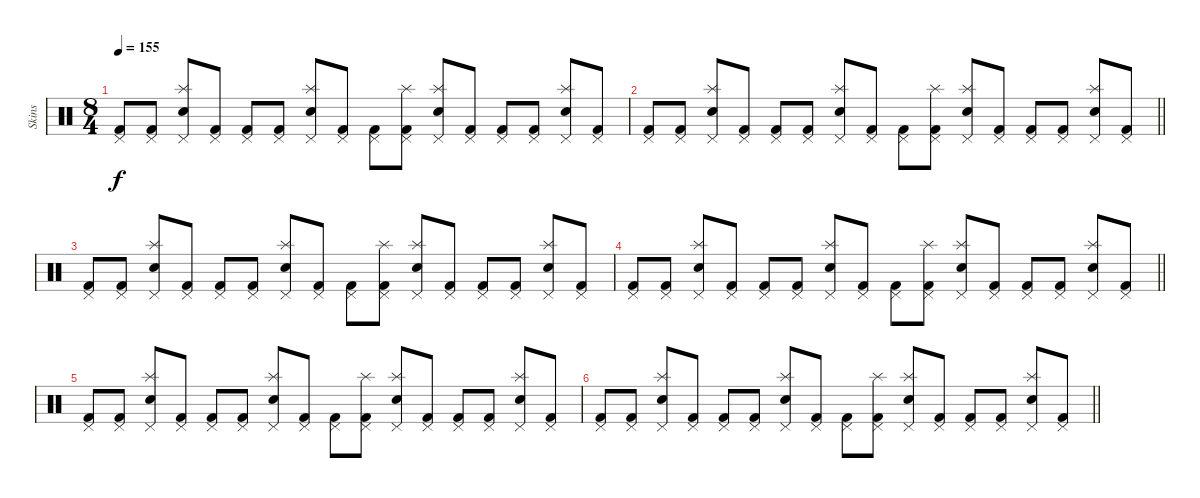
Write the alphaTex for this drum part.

\track ("Skins" "Skins") {instrument percussion}
\staff {score}
\articulation defaults
\ts (8 4)
\tempo 155
\clef neutral
\ks c
("Pedal Hi-Hat (hit)" "Kick (hit) 2").8{dy f} ("Pedal Hi-Hat (hit)" "Kick (hit) 2").8 ("Pedal Hi-Hat (hit)" "Splash (hit)" "Electric Snare (hit)").8 ("Pedal Hi-Hat (hit)" "Kick (hit) 2").8 ("Pedal Hi-Hat (hit)" "Kick (hit) 2").8 ("Pedal Hi-Hat (hit)" "Kick (hit) 2").8 ("Pedal Hi-Hat (hit)" "Splash (hit)" "Electric Snare (hit)").8 ("Pedal Hi-Hat (hit)" "Kick (hit) 2").8 ("Pedal Hi-Hat (hit)" "Kick (hit) 2").8 ("Pedal Hi-Hat (hit)" "Splash (hit)" "Kick (hit) 2").8 ("Pedal Hi-Hat (hit)" "Splash (hit)" "Electric Snare (hit)").8 ("Pedal Hi-Hat (hit)" "Kick (hit) 2").8 ("Pedal Hi-Hat (hit)" "Kick (hit) 2").8 ("Pedal Hi-Hat (hit)" "Kick (hit) 2").8 ("Pedal Hi-Hat (hit)" "Splash (hit)" "Electric Snare (hit)").8 ("Pedal Hi-Hat (hit)" "Kick (hit) 2").8 |
\barLineRight lightlight
("Pedal Hi-Hat (hit)" "Kick (hit) 2").8 ("Pedal Hi-Hat (hit)" "Kick (hit) 2").8 ("Pedal Hi-Hat (hit)" "Splash (hit)" "Electric Snare (hit)").8 ("Pedal Hi-Hat (hit)" "Kick (hit) 2").8 ("Pedal Hi-Hat (hit)" "Kick (hit) 2").8 ("Pedal Hi-Hat (hit)" "Kick (hit) 2").8 ("Pedal Hi-Hat (hit)" "Splash (hit)" "Electric Snare (hit)").8 ("Pedal Hi-Hat (hit)" "Kick (hit) 2").8 ("Pedal Hi-Hat (hit)" "Kick (hit) 2").8 ("Pedal Hi-Hat (hit)" "Splash (hit)" "Kick (hit) 2").8 ("Pedal Hi-Hat (hit)" "Splash (hit)" "Electric Snare (hit)").8 ("Pedal Hi-Hat (hit)" "Kick (hit) 2").8 ("Pedal Hi-Hat (hit)" "Kick (hit) 2").8 ("Pedal Hi-Hat (hit)" "Kick (hit) 2").8 ("Pedal Hi-Hat (hit)" "Splash (hit)" "Electric Snare (hit)").8 ("Pedal Hi-Hat (hit)" "Kick (hit) 2").8 |
("Pedal Hi-Hat (hit)" "Kick (hit) 2").8 ("Pedal Hi-Hat (hit)" "Kick (hit) 2").8 ("Pedal Hi-Hat (hit)" "Splash (hit)" "Electric Snare (hit)").8 ("Pedal Hi-Hat (hit)" "Kick (hit) 2").8 ("Pedal Hi-Hat (hit)" "Kick (hit) 2").8 ("Pedal Hi-Hat (hit)" "Kick (hit) 2").8 ("Pedal Hi-Hat (hit)" "Splash (hit)" "Electric Snare (hit)").8 ("Pedal Hi-Hat (hit)" "Kick (hit) 2").8 ("Pedal Hi-Hat (hit)" "Kick (hit) 2").8 ("Pedal Hi-Hat (hit)" "Splash (hit)" "Kick (hit) 2").8 ("Pedal Hi-Hat (hit)" "Splash (hit)" "Electric Snare (hit)").8 ("Pedal Hi-Hat (hit)" "Kick (hit) 2").8 ("Pedal Hi-Hat (hit)" "Kick (hit) 2").8 ("Pedal Hi-Hat (hit)" "Kick (hit) 2").8 ("Pedal Hi-Hat (hit)" "Splash (hit)" "Electric Snare (hit)").8 ("Pedal Hi-Hat (hit)" "Kick (hit) 2").8 |
\barLineRight lightlight
("Pedal Hi-Hat (hit)" "Kick (hit) 2").8 ("Pedal Hi-Hat (hit)" "Kick (hit) 2").8 ("Pedal Hi-Hat (hit)" "Splash (hit)" "Electric Snare (hit)").8 ("Pedal Hi-Hat (hit)" "Kick (hit) 2").8 ("Pedal Hi-Hat (hit)" "Kick (hit) 2").8 ("Pedal Hi-Hat (hit)" "Kick (hit) 2").8 ("Pedal Hi-Hat (hit)" "Splash (hit)" "Electric Snare (hit)").8 ("Pedal Hi-Hat (hit)" "Kick (hit) 2").8 ("Pedal Hi-Hat (hit)" "Kick (hit) 2").8 ("Pedal Hi-Hat (hit)" "Splash (hit)" "Kick (hit) 2").8 ("Pedal Hi-Hat (hit)" "Splash (hit)" "Electric Snare (hit)").8 ("Pedal Hi-Hat (hit)" "Kick (hit) 2").8 ("Pedal Hi-Hat (hit)" "Kick (hit) 2").8 ("Pedal Hi-Hat (hit)" "Kick (hit) 2").8 ("Pedal Hi-Hat (hit)" "Splash (hit)" "Electric Snare (hit)").8 ("Pedal Hi-Hat (hit)" "Kick (hit) 2").8 |
("Pedal Hi-Hat (hit)" "Kick (hit) 2").8 ("Pedal Hi-Hat (hit)" "Kick (hit) 2").8 ("Pedal Hi-Hat (hit)" "Splash (hit)" "Electric Snare (hit)").8 ("Pedal Hi-Hat (hit)" "Kick (hit) 2").8 ("Pedal Hi-Hat (hit)" "Kick (hit) 2").8 ("Pedal Hi-Hat (hit)" "Kick (hit) 2").8 ("Pedal Hi-Hat (hit)" "Splash (hit)" "Electric Snare (hit)").8 ("Pedal Hi-Hat (hit)" "Kick (hit) 2").8 ("Pedal Hi-Hat (hit)" "Kick (hit) 2").8 ("Pedal Hi-Hat (hit)" "Splash (hit)" "Kick (hit) 2").8 ("Pedal Hi-Hat (hit)" "Splash (hit)" "Electric Snare (hit)").8 ("Pedal Hi-Hat (hit)" "Kick (hit) 2").8 ("Pedal Hi-Hat (hit)" "Kick (hit) 2").8 ("Pedal Hi-Hat (hit)" "Kick (hit) 2").8 ("Pedal Hi-Hat (hit)" "Splash (hit)" "Electric Snare (hit)").8 ("Pedal Hi-Hat (hit)" "Kick (hit) 2").8 |
\barLineRight lightlight
("Pedal Hi-Hat (hit)" "Kick (hit) 2").8 ("Pedal Hi-Hat (hit)" "Kick (hit) 2").8 ("Pedal Hi-Hat (hit)" "Splash (hit)" "Electric Snare (hit)").8 ("Pedal Hi-Hat (hit)" "Kick (hit) 2").8 ("Pedal Hi-Hat (hit)" "Kick (hit) 2").8 ("Pedal Hi-Hat (hit)" "Kick (hit) 2").8 ("Pedal Hi-Hat (hit)" "Splash (hit)" "Electric Snare (hit)").8 ("Pedal Hi-Hat (hit)" "Kick (hit) 2").8 ("Pedal Hi-Hat (hit)" "Kick (hit) 2").8 ("Pedal Hi-Hat (hit)" "Splash (hit)" "Kick (hit) 2").8 ("Pedal Hi-Hat (hit)" "Splash (hit)" "Electric Snare (hit)").8 ("Pedal Hi-Hat (hit)" "Kick (hit) 2").8 ("Pedal Hi-Hat (hit)" "Kick (hit) 2").8 ("Pedal Hi-Hat (hit)" "Kick (hit) 2").8 ("Pedal Hi-Hat (hit)" "Splash (hit)" "Electric Snare (hit)").8 ("Pedal Hi-Hat (hit)" "Kick (hit) 2").8
